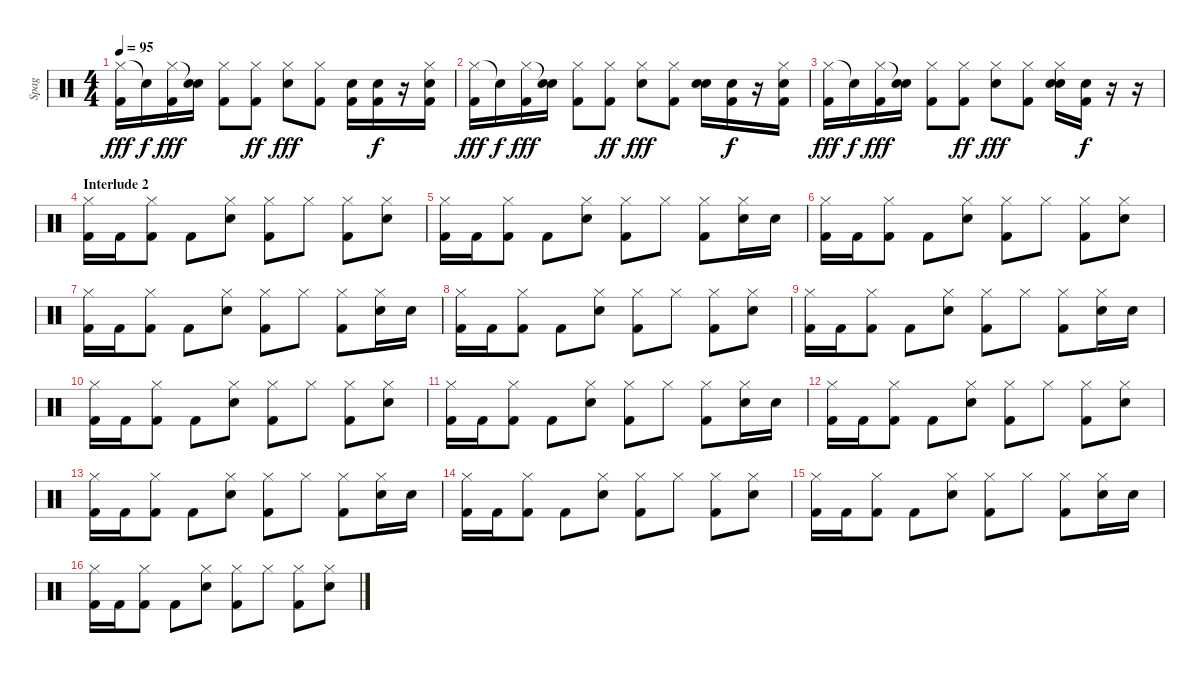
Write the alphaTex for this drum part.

\track ("Spag" "Spag") {instrument percussion}
\staff {score}
\articulation defaults
\ts (4 4)
\tempo 95
\clef neutral
\ks c
("Hi-Hat (closed)" "Kick (hit) 2").16{dy fff} "Snare (hit)"{t}.16{dy f} ("Hi-Hat (closed)" "Kick (hit) 2").16{dy fff} ("Snare (hit)"{t} "Electric Snare (hit)").16 ("Hi-Hat (closed)" "Kick (hit) 2").8 ("Hi-Hat (closed)" "Kick (hit) 2").8{dy ff} ("Hi-Hat (closed)" "Electric Snare (hit)").8{dy fff} ("Hi-Hat (closed)" "Kick (hit) 2").8 ("Snare (hit) 2" "Kick (hit) 2").16 ("Snare (hit) 2" "Kick (hit) 2").16{dy f} r.16 ("Hi-Hat (closed)" "Snare (hit) 2" "Kick (hit) 2").16 |
("Hi-Hat (closed)" "Kick (hit) 2").16{dy fff} "Snare (hit)"{t}.16{dy f} ("Hi-Hat (closed)" "Kick (hit) 2").16{dy fff} ("Snare (hit)"{t} "Electric Snare (hit)").16 ("Hi-Hat (closed)" "Kick (hit) 2").8 ("Hi-Hat (closed)" "Kick (hit) 2").8{dy ff} ("Hi-Hat (closed)" "Electric Snare (hit)").8{dy fff} ("Hi-Hat (closed)" "Kick (hit) 2").8 ("Snare (hit) 2" "Electric Snare (hit)").16 ("Snare (hit) 2" "Kick (hit) 2").16{dy f} r.16 ("Hi-Hat (closed)" "Snare (hit) 2" "Kick (hit) 2").16 |
("Hi-Hat (closed)" "Kick (hit) 2").16{dy fff} "Snare (hit)"{t}.16{dy f} ("Hi-Hat (closed)" "Kick (hit) 2").16{dy fff} ("Snare (hit)"{t} "Electric Snare (hit)").16 ("Hi-Hat (closed)" "Kick (hit) 2").8 ("Hi-Hat (closed)" "Kick (hit) 2").8{dy ff} ("Hi-Hat (closed)" "Electric Snare (hit)").8{dy fff} ("Hi-Hat (closed)" "Kick (hit) 2").8 ("Hi-Hat (closed)" "Snare (hit) 2" "Electric Snare (hit)").16 ("Snare (hit) 2" "Kick (hit) 2").16{dy f} r.16 r.16 |
\section ("" "Interlude 2")
("Hi-Hat (closed)" "Kick (hit) 2").16 "Kick (hit) 2".16 ("Hi-Hat (closed)" "Kick (hit) 2").8 "Kick (hit) 2".8 ("Hi-Hat (closed)" "Electric Snare (hit)").8 ("Hi-Hat (closed)" "Kick (hit) 2").8 "Hi-Hat (closed)".8 ("Hi-Hat (closed)" "Kick (hit) 2").8 ("Hi-Hat (closed)" "Electric Snare (hit)").8 |
("Hi-Hat (closed)" "Kick (hit) 2").16 "Kick (hit) 2".16 ("Hi-Hat (closed)" "Kick (hit) 2").8 "Kick (hit) 2".8 ("Hi-Hat (closed)" "Electric Snare (hit)").8 ("Hi-Hat (closed)" "Kick (hit) 2").8 "Hi-Hat (closed)".8 ("Hi-Hat (closed)" "Kick (hit) 2").8 ("Hi-Hat (closed)" "Electric Snare (hit)").16 "Electric Snare (hit)".16 |
("Hi-Hat (closed)" "Kick (hit) 2").16 "Kick (hit) 2".16 ("Hi-Hat (closed)" "Kick (hit) 2").8 "Kick (hit) 2".8 ("Hi-Hat (closed)" "Electric Snare (hit)").8 ("Hi-Hat (closed)" "Kick (hit) 2").8 "Hi-Hat (closed)".8 ("Hi-Hat (closed)" "Kick (hit) 2").8 ("Hi-Hat (closed)" "Electric Snare (hit)").8 |
("Hi-Hat (closed)" "Kick (hit) 2").16 "Kick (hit) 2".16 ("Hi-Hat (closed)" "Kick (hit) 2").8 "Kick (hit) 2".8 ("Hi-Hat (closed)" "Electric Snare (hit)").8 ("Hi-Hat (closed)" "Kick (hit) 2").8 "Hi-Hat (closed)".8 ("Hi-Hat (closed)" "Kick (hit) 2").8 ("Hi-Hat (closed)" "Electric Snare (hit)").16 "Electric Snare (hit)".16 |
("Hi-Hat (closed)" "Kick (hit) 2").16 "Kick (hit) 2".16 ("Hi-Hat (closed)" "Kick (hit) 2").8 "Kick (hit) 2".8 ("Hi-Hat (closed)" "Electric Snare (hit)").8 ("Hi-Hat (closed)" "Kick (hit) 2").8 "Hi-Hat (closed)".8 ("Hi-Hat (closed)" "Kick (hit) 2").8 ("Hi-Hat (closed)" "Electric Snare (hit)").8 |
("Hi-Hat (closed)" "Kick (hit) 2").16 "Kick (hit) 2".16 ("Hi-Hat (closed)" "Kick (hit) 2").8 "Kick (hit) 2".8 ("Hi-Hat (closed)" "Electric Snare (hit)").8 ("Hi-Hat (closed)" "Kick (hit) 2").8 "Hi-Hat (closed)".8 ("Hi-Hat (closed)" "Kick (hit) 2").8 ("Hi-Hat (closed)" "Electric Snare (hit)").16 "Electric Snare (hit)".16 |
("Hi-Hat (closed)" "Kick (hit) 2").16 "Kick (hit) 2".16 ("Hi-Hat (closed)" "Kick (hit) 2").8 "Kick (hit) 2".8 ("Hi-Hat (closed)" "Electric Snare (hit)").8 ("Hi-Hat (closed)" "Kick (hit) 2").8 "Hi-Hat (closed)".8 ("Hi-Hat (closed)" "Kick (hit) 2").8 ("Hi-Hat (closed)" "Electric Snare (hit)").8 |
("Hi-Hat (closed)" "Kick (hit) 2").16 "Kick (hit) 2".16 ("Hi-Hat (closed)" "Kick (hit) 2").8 "Kick (hit) 2".8 ("Hi-Hat (closed)" "Electric Snare (hit)").8 ("Hi-Hat (closed)" "Kick (hit) 2").8 "Hi-Hat (closed)".8 ("Hi-Hat (closed)" "Kick (hit) 2").8 ("Hi-Hat (closed)" "Electric Snare (hit)").16 "Electric Snare (hit)".16 |
("Hi-Hat (closed)" "Kick (hit) 2").16 "Kick (hit) 2".16 ("Hi-Hat (closed)" "Kick (hit) 2").8 "Kick (hit) 2".8 ("Hi-Hat (closed)" "Electric Snare (hit)").8 ("Hi-Hat (closed)" "Kick (hit) 2").8 "Hi-Hat (closed)".8 ("Hi-Hat (closed)" "Kick (hit) 2").8 ("Hi-Hat (closed)" "Electric Snare (hit)").8 |
("Hi-Hat (closed)" "Kick (hit) 2").16 "Kick (hit) 2".16 ("Hi-Hat (closed)" "Kick (hit) 2").8 "Kick (hit) 2".8 ("Hi-Hat (closed)" "Electric Snare (hit)").8 ("Hi-Hat (closed)" "Kick (hit) 2").8 "Hi-Hat (closed)".8 ("Hi-Hat (closed)" "Kick (hit) 2").8 ("Hi-Hat (closed)" "Electric Snare (hit)").16 "Electric Snare (hit)".16 |
("Hi-Hat (closed)" "Kick (hit) 2").16 "Kick (hit) 2".16 ("Hi-Hat (closed)" "Kick (hit) 2").8 "Kick (hit) 2".8 ("Hi-Hat (closed)" "Electric Snare (hit)").8 ("Hi-Hat (closed)" "Kick (hit) 2").8 "Hi-Hat (closed)".8 ("Hi-Hat (closed)" "Kick (hit) 2").8 ("Hi-Hat (closed)" "Electric Snare (hit)").8 |
("Hi-Hat (closed)" "Kick (hit) 2").16 "Kick (hit) 2".16 ("Hi-Hat (closed)" "Kick (hit) 2").8 "Kick (hit) 2".8 ("Hi-Hat (closed)" "Electric Snare (hit)").8 ("Hi-Hat (closed)" "Kick (hit) 2").8 "Hi-Hat (closed)".8 ("Hi-Hat (closed)" "Kick (hit) 2").8 ("Hi-Hat (closed)" "Electric Snare (hit)").16 "Electric Snare (hit)".16 |
("Hi-Hat (closed)" "Kick (hit) 2").16 "Kick (hit) 2".16 ("Hi-Hat (closed)" "Kick (hit) 2").8 "Kick (hit) 2".8 ("Hi-Hat (closed)" "Electric Snare (hit)").8 ("Hi-Hat (closed)" "Kick (hit) 2").8 "Hi-Hat (closed)".8 ("Hi-Hat (closed)" "Kick (hit) 2").8 ("Hi-Hat (closed)" "Electric Snare (hit)").8
